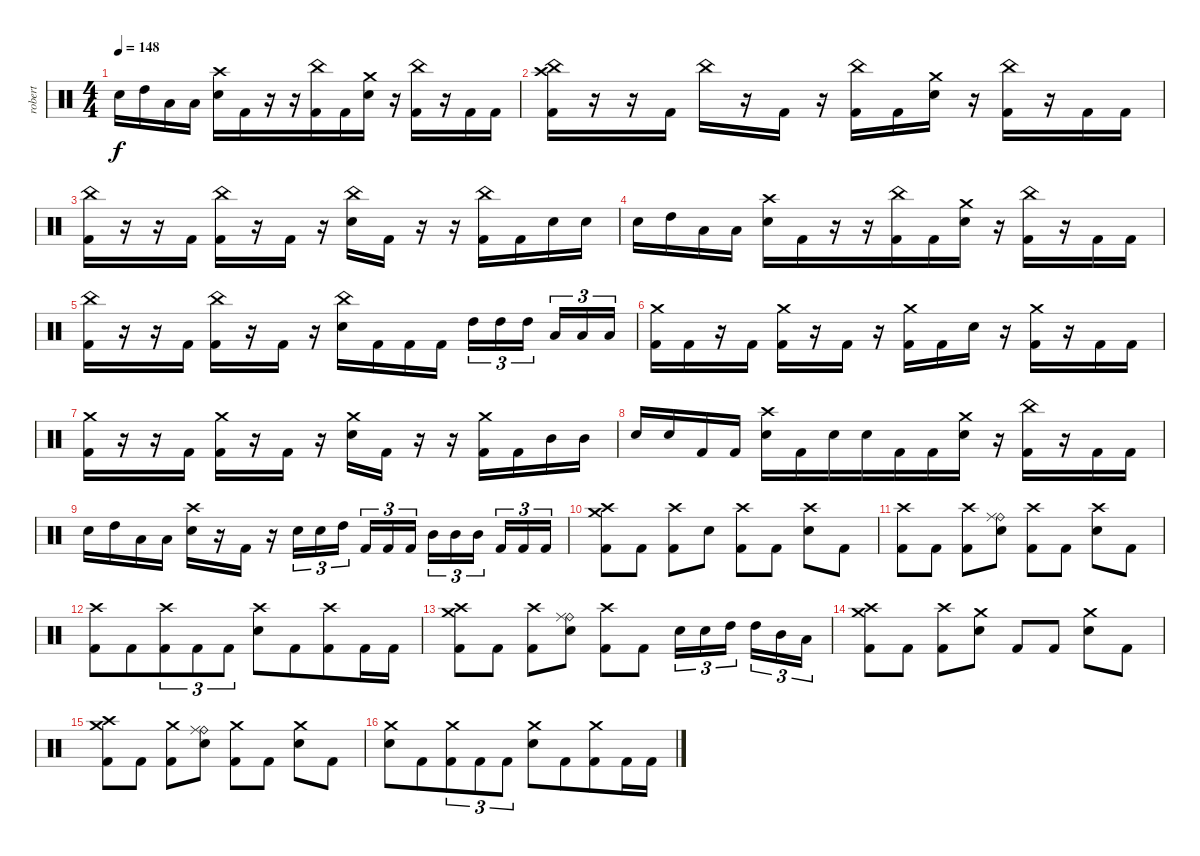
\track ("robert" "robert") {instrument percussion}
\staff {score}
\articulation defaults
\ts (4 4)
\tempo 148
\clef neutral
\ks c "Electric Snare (hit)".16{dy f} "High Tom (hit)".16 "Low Tom (hit)".16 "Low Tom (hit)".16
("Electric Snare (hit)" "Crash high (hit)").16 "Kick (hit) 2".16{beam merge} r.16 r.16{beam merge} ("China (hit)" "Kick (hit) 2").16 "Kick (hit) 2".16 ("Electric Snare (hit)" "Crash medium (hit)").16 r.16 ("China (hit)" "Kick (hit) 2").16 r.16 "Kick (hit) 2".16 "Kick (hit) 2".16 |
("China (hit)" "Kick (hit) 2" "Crash high (hit)").16 r.16 r.16 "Kick (hit) 2".16 "China (hit)".16 r.16{beam merge} "Kick (hit) 2".16 r.16{beam merge} ("China (hit)" "Kick (hit) 2").16 "Kick (hit) 2".16 ("Electric Snare (hit)" "Crash medium (hit)").16 r.16 ("China (hit)" "Kick (hit) 2").16 r.16 "Kick (hit) 2".16 "Kick (hit) 2".16 |
("China (hit)" "Kick (hit) 2").16 r.16 r.16 "Kick (hit) 2".16 ("China (hit)" "Kick (hit) 2").16 r.16{beam merge} "Kick (hit) 2".16 r.16{beam merge} ("China (hit)" "Electric Snare (hit)").16 "Kick (hit) 2".16 r.16 r.16 ("Kick (hit) 2" "China (hit)").16 "Kick (hit) 2".16 "Electric Snare (hit)".16 "Electric Snare (hit)".16 |
"Electric Snare (hit)".16 "High Tom (hit)".16 "Low Tom (hit)".16 "Low Tom (hit)".16 ("Electric Snare (hit)" "Crash high (hit)").16 "Kick (hit) 2".16{beam merge} r.16 r.16{beam merge} ("China (hit)" "Kick (hit) 2").16 "Kick (hit) 2".16 ("Electric Snare (hit)" "Crash medium (hit)").16 r.16 ("China (hit)" "Kick (hit) 2").16 r.16 "Kick (hit) 2".16 "Kick (hit) 2".16 |
("China (hit)" "Kick (hit) 2").16 r.16 r.16 "Kick (hit) 2".16 ("China (hit)" "Kick (hit) 2").16 r.16{beam merge} "Kick (hit) 2".16 r.16{beam merge} ("China (hit)" "Electric Snare (hit)").16 "Kick (hit) 2".16 "Kick (hit) 2".16 "Kick (hit) 2".16 "High Tom (hit)".16{tu (3 2)} "High Tom (hit)".16{tu (3 2)} "High Tom (hit)".16{tu (3 2) beam splitsecondary} "Low Tom (hit)".16{tu (3 2)} "Low Tom (hit)".16{tu (3 2)} "Low Tom (hit)".16{tu (3 2)} |
("Crash medium (hit)" "Kick (hit) 2").16 "Kick (hit) 2".16 r.16 "Kick (hit) 2".16 ("Crash medium (hit)" "Kick (hit) 2").16 r.16{beam merge} "Kick (hit) 2".16 r.16{beam merge} ("Crash medium (hit)" "Kick (hit) 2").16 "Kick (hit) 2".16 "Electric Snare (hit)".16 r.16 ("Crash medium (hit)" "Kick (hit) 2").16 r.16 "Kick (hit) 2".16 "Kick (hit) 2".16 |
("Crash medium (hit)" "Kick (hit) 2").16 r.16 r.16 "Kick (hit) 2".16 ("Crash medium (hit)" "Kick (hit) 2").16 r.16{beam merge} "Kick (hit) 2".16 r.16{beam merge} ("Crash medium (hit)" "Electric Snare (hit)").16 "Kick (hit) 2".16 r.16 r.16 ("Kick (hit) 2" "Crash medium (hit)").16 "Kick (hit) 2".16 "Mid Tom (hit)".16 "Mid Tom (hit)".16 |
"Electric Snare (hit)".16 "Electric Snare (hit)".16 "Kick (hit) 2".16 "Kick (hit) 2".16 ("Electric Snare (hit)" "Crash high (hit)").16 "Kick (hit) 2".16{beam merge} "Electric Snare (hit)".16 "Electric Snare (hit)".16{beam merge} "Kick (hit) 2".16 "Kick (hit) 2".16 ("Electric Snare (hit)" "Crash medium (hit)").16 r.16 ("China (hit)" "Kick (hit) 2").16 r.16 "Kick (hit) 2".16 "Kick (hit) 2".16 |
"Electric Snare (hit)".16 "High Tom (hit)".16 "Low Tom (hit)".16 "Low Tom (hit)".16 ("Electric Snare (hit)" "Crash high (hit)").16 r.16{beam merge} "Kick (hit) 2".16 r.16{beam merge} "Electric Snare (hit)".16{tu (3 2)} "Electric Snare (hit)".16{tu (3 2) beam merge} "High Tom (hit)".16{tu (3 2) beam splitsecondary} "Kick (hit) 2".16{tu (3 2)} "Kick (hit) 2".16{tu (3 2)} "Kick (hit) 2".16{tu (3 2)} "Mid Tom (hit)".16{tu (3 2) beam merge} "Mid Tom (hit)".16{tu (3 2) beam merge} "Mid Tom (hit)".16{tu (3 2) beam splitsecondary} "Kick (hit) 2".16{tu (3 2)} "Kick (hit) 2".16{tu (3 2)} "Kick (hit) 2".16{tu (3 2)} |
("Crash medium (hit)" "Crash high (hit)" "Kick (hit) 2").8 "Kick (hit) 2".8 ("Crash high (hit)" "Kick (hit) 2").8 "Electric Snare (hit)".8 ("Crash high (hit)" "Kick (hit) 2").8{beam merge} "Kick (hit) 2".8 ("Crash high (hit)" "Electric Snare (hit)").8 "Kick (hit) 2".8 |
("Crash high (hit)" "Kick (hit) 2").8 "Kick (hit) 2".8 ("Crash high (hit)" "Kick (hit) 2").8 ("Ride (bell)" "Ride (middle)" "Electric Snare (hit)").8 ("Crash high (hit)" "Kick (hit) 2").8{beam merge} "Kick (hit) 2".8 ("Crash high (hit)" "Electric Snare (hit)").8 "Kick (hit) 2".8 |
("Kick (hit) 2" "Crash high (hit)").8 "Kick (hit) 2".8{beam merge} ("Kick (hit) 2" "Crash high (hit)").8{tu (3 2)} "Kick (hit) 2".8{tu (3 2)} "Kick (hit) 2".8{tu (3 2)} ("Electric Snare (hit)" "Crash high (hit)").8 "Kick (hit) 2".8{beam merge} ("Kick (hit) 2" "Crash high (hit)").8 "Kick (hit) 2".16 "Kick (hit) 2".16 |
("Crash medium (hit)" "Crash high (hit)" "Kick (hit) 2").8 "Kick (hit) 2".8 ("Crash high (hit)" "Kick (hit) 2").8 ("Ride (bell)" "Ride (middle)" "Electric Snare (hit)").8 ("Crash high (hit)" "Kick (hit) 2").8{beam merge} "Kick (hit) 2".8 "Electric Snare (hit)".16{tu (3 2) beam merge} "Electric Snare (hit)".16{tu (3 2)} "High Tom (hit)".16{tu (3 2) beam splitsecondary} "High Tom (hit)".16{tu (3 2)} "Mid Tom (hit)".16{tu (3 2) beam merge} "Low Tom (hit)".16{tu (3 2)} |
("Crash medium (hit)" "Crash high (hit)" "Kick (hit) 2").8 "Kick (hit) 2".8 ("Crash high (hit)" "Kick (hit) 2").8 ("Crash medium (hit)" "Electric Snare (hit)").8 "Kick (hit) 2".8{beam merge} "Kick (hit) 2".8 ("Crash medium (hit)" "Electric Snare (hit)").8 "Kick (hit) 2".8 |
("Crash medium (hit)" "Crash high (hit)" "Kick (hit) 2").8 "Kick (hit) 2".8 ("Crash medium (hit)" "Kick (hit) 2").8 ("Ride (bell)" "Ride (middle)" "Electric Snare (hit)").8 ("Crash medium (hit)" "Kick (hit) 2").8{beam merge} "Kick (hit) 2".8 ("Crash medium (hit)" "Electric Snare (hit)").8 "Kick (hit) 2".8 |
("Electric Snare (hit)" "Crash medium (hit)").8 "Kick (hit) 2".8{beam merge} ("Kick (hit) 2" "Crash medium (hit)").8{tu (3 2)} "Kick (hit) 2".8{tu (3 2)} "Kick (hit) 2".8{tu (3 2)} ("Electric Snare (hit)" "Crash medium (hit)").8 "Kick (hit) 2".8{beam merge} ("Kick (hit) 2" "Crash medium (hit)").8 "Kick (hit) 2".16 "Kick (hit) 2".16
